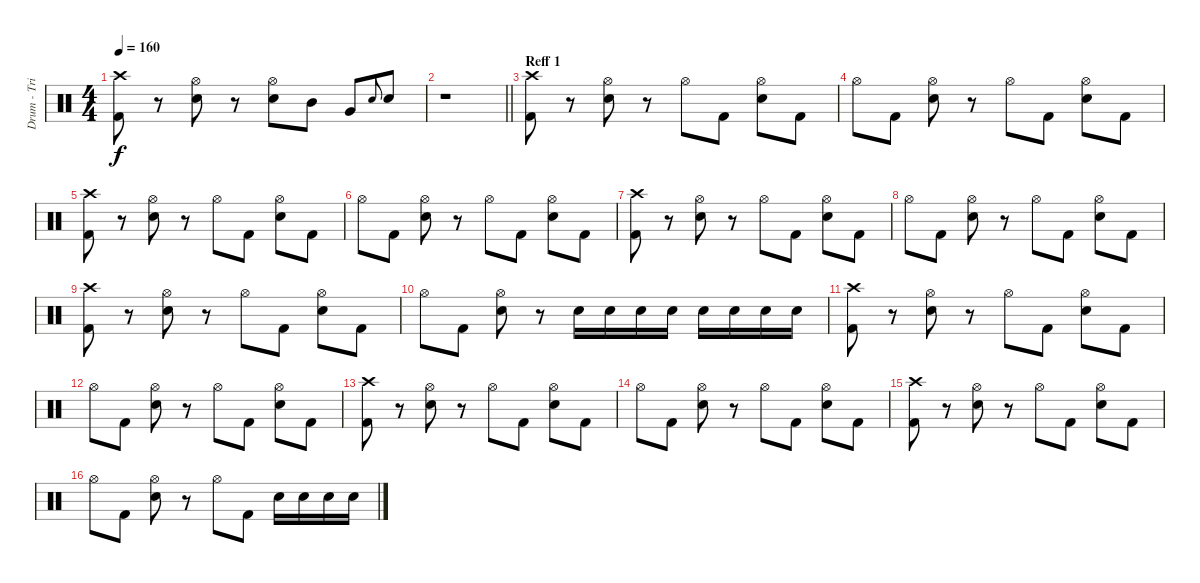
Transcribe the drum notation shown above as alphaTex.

\track ("Drum - Trian" "Drum - Tri") {instrument percussion}
\staff {score}
\articulation defaults
\ts (4 4)
\tempo 160
\clef neutral
\ks c
("Crash high (hit)" "Kick (hit) 2").8{dy f} r.8 ("Hi-Hat (open)" "Electric Snare (hit)").8 r.8 ("Hi-Hat (open)" "Electric Snare (hit)").8 "Mid Tom (hit)".8 "Very Low Tom (hit)".8 "Electric Snare (hit)".8{gr onbeat} "Electric Snare (hit)".8 |
\barLineRight lightlight
r.1 |
\section ("" "Reff 1")
("Crash high (hit)" "Kick (hit) 2").8 r.8 ("Hi-Hat (open)" "Electric Snare (hit)").8 r.8 "Hi-Hat (open)".8 "Kick (hit) 2".8 ("Hi-Hat (open)" "Electric Snare (hit)").8 "Kick (hit) 2".8 |
"Hi-Hat (open)".8 "Kick (hit) 2".8 ("Hi-Hat (open)" "Electric Snare (hit)").8 r.8 "Hi-Hat (open)".8 "Kick (hit) 2".8 ("Hi-Hat (open)" "Electric Snare (hit)").8 "Kick (hit) 2".8 |
("Crash high (hit)" "Kick (hit) 2").8 r.8 ("Hi-Hat (open)" "Electric Snare (hit)").8 r.8 "Hi-Hat (open)".8 "Kick (hit) 2".8 ("Hi-Hat (open)" "Electric Snare (hit)").8 "Kick (hit) 2".8 |
"Hi-Hat (open)".8 "Kick (hit) 2".8 ("Hi-Hat (open)" "Electric Snare (hit)").8 r.8 "Hi-Hat (open)".8 "Kick (hit) 2".8 ("Hi-Hat (open)" "Electric Snare (hit)").8 "Kick (hit) 2".8 |
("Crash high (hit)" "Kick (hit) 2").8 r.8 ("Hi-Hat (open)" "Electric Snare (hit)").8 r.8 "Hi-Hat (open)".8 "Kick (hit) 2".8 ("Hi-Hat (open)" "Electric Snare (hit)").8 "Kick (hit) 2".8 |
"Hi-Hat (open)".8 "Kick (hit) 2".8 ("Hi-Hat (open)" "Electric Snare (hit)").8 r.8 "Hi-Hat (open)".8 "Kick (hit) 2".8 ("Hi-Hat (open)" "Electric Snare (hit)").8 "Kick (hit) 2".8 |
("Crash high (hit)" "Kick (hit) 2").8 r.8 ("Hi-Hat (open)" "Electric Snare (hit)").8 r.8 "Hi-Hat (open)".8 "Kick (hit) 2".8 ("Hi-Hat (open)" "Electric Snare (hit)").8 "Kick (hit) 2".8 |
"Hi-Hat (open)".8 "Kick (hit) 2".8 ("Hi-Hat (open)" "Electric Snare (hit)").8 r.8 "Electric Snare (hit)".16 "Electric Snare (hit)".16 "Electric Snare (hit)".16 "Electric Snare (hit)".16 "Electric Snare (hit)".16 "Electric Snare (hit)".16 "Electric Snare (hit)".16 "Electric Snare (hit)".16 |
("Crash high (hit)" "Kick (hit) 2").8 r.8 ("Hi-Hat (open)" "Electric Snare (hit)").8 r.8 "Hi-Hat (open)".8 "Kick (hit) 2".8 ("Hi-Hat (open)" "Electric Snare (hit)").8 "Kick (hit) 2".8 |
"Hi-Hat (open)".8 "Kick (hit) 2".8 ("Hi-Hat (open)" "Electric Snare (hit)").8 r.8 "Hi-Hat (open)".8 "Kick (hit) 2".8 ("Hi-Hat (open)" "Electric Snare (hit)").8 "Kick (hit) 2".8 |
("Crash high (hit)" "Kick (hit) 2").8 r.8 ("Hi-Hat (open)" "Electric Snare (hit)").8 r.8 "Hi-Hat (open)".8 "Kick (hit) 2".8 ("Hi-Hat (open)" "Electric Snare (hit)").8 "Kick (hit) 2".8 |
"Hi-Hat (open)".8 "Kick (hit) 2".8 ("Hi-Hat (open)" "Electric Snare (hit)").8 r.8 "Hi-Hat (open)".8 "Kick (hit) 2".8 ("Hi-Hat (open)" "Electric Snare (hit)").8 "Kick (hit) 2".8 |
("Crash high (hit)" "Kick (hit) 2").8 r.8 ("Hi-Hat (open)" "Electric Snare (hit)").8 r.8 "Hi-Hat (open)".8 "Kick (hit) 2".8 ("Hi-Hat (open)" "Electric Snare (hit)").8 "Kick (hit) 2".8 |
"Hi-Hat (open)".8 "Kick (hit) 2".8 ("Hi-Hat (open)" "Electric Snare (hit)").8 r.8 "Hi-Hat (open)".8 "Kick (hit) 2".8 "Electric Snare (hit)".16 "Electric Snare (hit)".16 "Electric Snare (hit)".16 "Electric Snare (hit)".16
